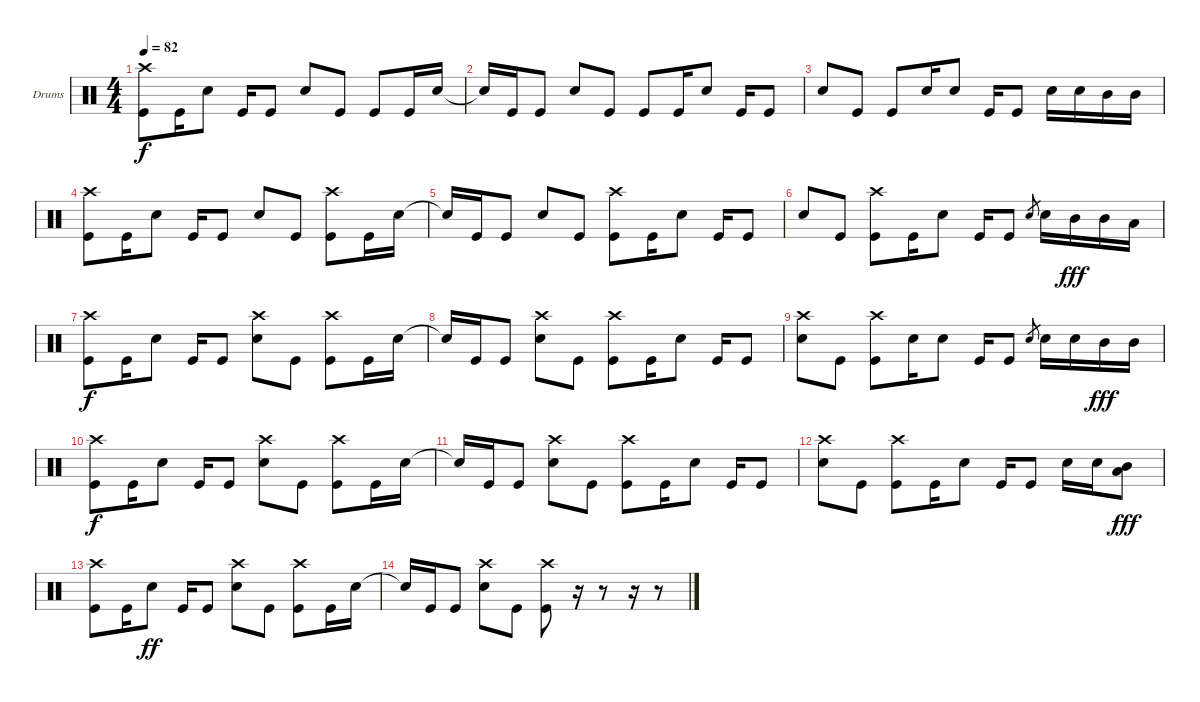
\defaultSystemsLayout 4
\bracketExtendMode groupsimilarinstruments
\firstSystemTrackNameOrientation horizontal
\otherSystemsTrackNameOrientation horizontal
\track ("Drumkit" "Drums") {instrument percussion}
\staff {score}
\articulation defaults
\ts (4 4)
\tempo 82
\clef neutral
\scale
0.333333
\ks c
("Kick (hit)" "Crash high (hit)").8{dy f} "Kick (hit)".16 "Snare (hit) 2".8 "Kick (hit)".16 "Kick (hit)".8 "Snare (hit) 2".8 "Kick (hit)".8 "Kick (hit)".8 "Kick (hit)".16 "Snare (hit) 2".16 |
\scale
0.333333 "Snare (hit) 2"{t}.16 "Kick (hit)".16 "Kick (hit)".8 "Snare (hit) 2".8 "Kick (hit)".8 "Kick (hit)".8 "Kick (hit)".16 "Snare (hit) 2".8 "Kick (hit)".16 "Kick (hit)".8 |
\scale
0.333333 "Snare (hit) 2".8 "Kick (hit)".8 "Kick (hit)".8 "Snare (hit) 2".16 "Snare (hit) 2".8 "Kick (hit)".16 "Kick (hit)".8 "Snare (hit) 2".16 "Snare (hit) 2".16 "Mid Tom (hit)".16 "Mid Tom (hit)".16 |
\scale
0.333333 ("Kick (hit)" "Crash high (hit)").8 "Kick (hit)".16 "Snare (hit) 2".8 "Kick (hit)".16 "Kick (hit)".8 "Snare (hit) 2".8 "Kick (hit)".8 ("Kick (hit)" "Crash high (hit)").8 "Kick (hit)".16 "Snare (hit) 2".16 |
\scale
0.333333 "Snare (hit) 2"{t}.16 "Kick (hit)".16 "Kick (hit)".8 "Snare (hit) 2".8 "Kick (hit)".8 ("Kick (hit)" "Crash high (hit)").8 "Kick (hit)".16 "Snare (hit) 2".8 "Kick (hit)".16 "Kick (hit)".8 |
\scale
0.333333 "Snare (hit) 2".8 "Kick (hit)".8 ("Kick (hit)" "Crash high (hit)").8 "Kick (hit)".16 "Snare (hit) 2".8 "Kick (hit)".16 "Kick (hit)".8 "Snare (hit) 2".8{gr} "Snare (hit) 2".16 "Mid Tom (hit)".16{dy fff} "Mid Tom (hit)".16 "Low Tom (hit)".16 |
\scale
0.333333 ("Kick (hit)" "Crash high (hit)").8{dy f} "Kick (hit)".16 "Snare (hit) 2".8 "Kick (hit)".16 "Kick (hit)".8 ("Snare (hit) 2" "Crash high (hit)").8 "Kick (hit)".8 ("Kick (hit)" "Crash high (hit)").8 "Kick (hit)".16 "Snare (hit) 2".16 |
\scale
0.333333 "Snare (hit) 2"{t}.16 "Kick (hit)".16 "Kick (hit)".8 ("Snare (hit) 2" "Crash high (hit)").8 "Kick (hit)".8 ("Kick (hit)" "Crash high (hit)").8 "Kick (hit)".16 "Snare (hit) 2".8 "Kick (hit)".16 "Kick (hit)".8 |
\scale
0.333333 ("Snare (hit) 2" "Crash high (hit)").8 "Kick (hit)".8 ("Kick (hit)" "Crash high (hit)").8 "Snare (hit) 2".16 "Snare (hit) 2".8 "Kick (hit)".16 "Kick (hit)".8 "Snare (hit) 2".8{gr} "Snare (hit) 2".16 "Snare (hit) 2".16 "Mid Tom (hit)".16{dy fff} "Mid Tom (hit)".16 |
\scale
0.333333 ("Kick (hit)" "Crash high (hit)").8{dy f} "Kick (hit)".16 "Snare (hit) 2".8 "Kick (hit)".16 "Kick (hit)".8 ("Snare (hit) 2" "Crash high (hit)").8 "Kick (hit)".8 ("Kick (hit)" "Crash high (hit)").8 "Kick (hit)".16 "Snare (hit) 2".16 |
\scale
0.333333 "Snare (hit) 2"{t}.16 "Kick (hit)".16 "Kick (hit)".8 ("Snare (hit) 2" "Crash high (hit)").8 "Kick (hit)".8 ("Kick (hit)" "Crash high (hit)").8 "Kick (hit)".16 "Snare (hit) 2".8 "Kick (hit)".16 "Kick (hit)".8 |
\scale
0.333333 ("Snare (hit) 2" "Crash high (hit)").8 "Kick (hit)".8 ("Kick (hit)" "Crash high (hit)").8 "Kick (hit)".16 "Snare (hit) 2".8 "Kick (hit)".16 "Kick (hit)".8 "Snare (hit) 2".16 "Snare (hit) 2".16 ("Low Tom (hit)" "Mid Tom (hit)").8{dy fff} |
\scale
0.333333 ("Kick (hit)" "Crash high (hit)").8 "Kick (hit)".16 "Snare (hit) 2".8{dy ff} "Kick (hit)".16 "Kick (hit)".8 ("Snare (hit) 2" "Crash high (hit)").8 "Kick (hit)".8 ("Kick (hit)" "Crash high (hit)").8 "Kick (hit)".16 "Snare (hit) 2".16 |
\scale
0.333333 "Snare (hit) 2"{t}.16 "Kick (hit)".16 "Kick (hit)".8 ("Snare (hit) 2" "Crash high (hit)").8 "Kick (hit)".8 ("Kick (hit)" "Crash high (hit)").8 r.16 r.8 r.16 r.8 |
\scale
0.333333 |
\scale
0.333333
